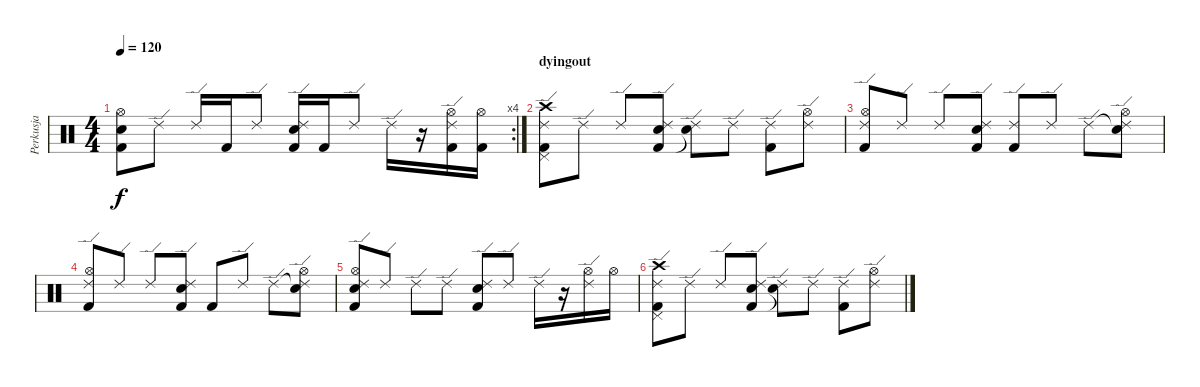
\track ("Perkusja" "Perkusja") {instrument percussion}
\staff {score}
\articulation defaults
\rc 4
\ts (4 4)
\tempo 120
\clef neutral
\ks c
("Kick (hit) 2" "Snare (hit) 2" "Hi-Hat (open)").8{dy f} "Ride (edge) 2".8 "Ride (edge) 2".16 "Kick (hit) 2".16 "Ride (edge) 2".8 ("Kick (hit) 2" "Ride (edge) 2" "Snare (hit) 2").16 "Kick (hit) 2".16 "Ride (edge) 2".8 "Ride (edge) 2".16 r.16 ("Kick (hit) 2" "Ride (edge) 2" "Hi-Hat (open)").16 ("Kick (hit) 2" "Hi-Hat (open)").16 |
\section ("" "dyingout")
("Kick (hit) 2" "Ride (edge) 2" "Pedal Hi-Hat (hit)" "Crash high (hit)").8 "Ride (edge) 2".8 "Ride (edge) 2".8 ("Kick (hit) 2" "Ride (edge) 2" "Snare (hit) 2").8 ("Snare (hit)"{t} "Ride (edge) 2").8 "Ride (edge) 2".8 ("Kick (hit) 2" "Ride (edge) 2").8 ("Ride (edge) 2" "Hi-Hat (open)").8 |
("Kick (hit) 2" "Ride (edge) 2" "Hi-Hat (open)").8{volume 6} "Ride (edge) 2".8 "Ride (edge) 2".8 ("Kick (hit) 2" "Ride (edge) 2" "Snare (hit) 2").8 ("Kick (hit) 2" "Ride (edge) 2").8 "Ride (edge) 2".8 "Ride (edge) 2".8 ("Snare (hit)"{t} "Ride (edge) 2" "Hi-Hat (open)").8 |
("Kick (hit) 2" "Ride (edge) 2" "Hi-Hat (open)").8 "Ride (edge) 2".8 "Ride (edge) 2".8 ("Kick (hit) 2" "Ride (edge) 2" "Snare (hit) 2").8 "Kick (hit) 2".8 "Ride (edge) 2".8 "Ride (edge) 2".8 ("Snare (hit)"{t} "Ride (edge) 2" "Hi-Hat (open)").8 |
("Kick (hit) 2" "Ride (edge) 2" "Snare (hit) 2" "Hi-Hat (open)").8{volume 0} "Ride (edge) 2".8 "Ride (edge) 2".8 "Ride (edge) 2".8 ("Kick (hit) 2" "Ride (edge) 2" "Snare (hit) 2").8 "Ride (edge) 2".8 "Ride (edge) 2".16 r.16 ("Ride (edge) 2" "Hi-Hat (open)").16 "Hi-Hat (open)".16 |
("Kick (hit) 2" "Ride (edge) 2" "Pedal Hi-Hat (hit)" "Crash high (hit)").8 "Ride (edge) 2".8 "Ride (edge) 2".8 ("Kick (hit) 2" "Ride (edge) 2" "Snare (hit) 2").8 ("Snare (hit)"{t} "Ride (edge) 2").8 "Ride (edge) 2".8 ("Kick (hit) 2" "Ride (edge) 2").8 ("Ride (edge) 2" "Hi-Hat (open)").8
